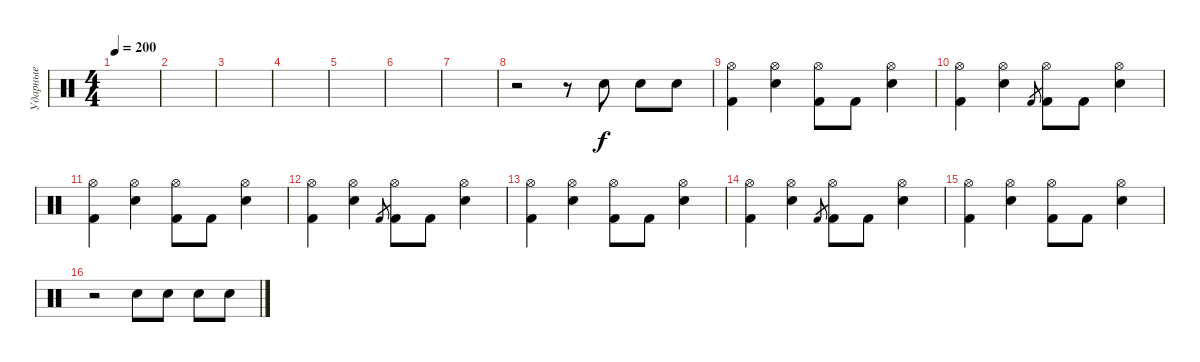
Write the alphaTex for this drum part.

\track ("Ударные" "Ударные") {instrument percussion}
\staff {score}
\articulation defaults
\ts (4 4)
\tempo 200
\clef neutral
\ks c
|
|
|
|
|
|
|
r.2 r.8 "Electric Snare (hit)".8 "Electric Snare (hit)".8 "Electric Snare (hit)".8 |
("Hi-Hat (open)" "Kick (hit) 2").4 ("Hi-Hat (open)" "Electric Snare (hit)").4 ("Hi-Hat (open)" "Kick (hit) 2").8 "Kick (hit) 2".8 ("Hi-Hat (open)" "Electric Snare (hit)").4 |
("Hi-Hat (open)" "Kick (hit) 2").4 ("Hi-Hat (open)" "Electric Snare (hit)").4 "Kick (hit) 2".8{gr} ("Hi-Hat (open)" "Kick (hit) 2").8 "Kick (hit) 2".8 ("Hi-Hat (open)" "Electric Snare (hit)").4 |
("Hi-Hat (open)" "Kick (hit) 2").4 ("Hi-Hat (open)" "Electric Snare (hit)").4 ("Hi-Hat (open)" "Kick (hit) 2").8 "Kick (hit) 2".8 ("Hi-Hat (open)" "Electric Snare (hit)").4 |
("Hi-Hat (open)" "Kick (hit) 2").4 ("Hi-Hat (open)" "Electric Snare (hit)").4 "Kick (hit) 2".8{gr} ("Hi-Hat (open)" "Kick (hit) 2").8 "Kick (hit) 2".8 ("Hi-Hat (open)" "Electric Snare (hit)").4 |
("Hi-Hat (open)" "Kick (hit) 2").4 ("Hi-Hat (open)" "Electric Snare (hit)").4 ("Hi-Hat (open)" "Kick (hit) 2").8 "Kick (hit) 2".8 ("Hi-Hat (open)" "Electric Snare (hit)").4 |
("Hi-Hat (open)" "Kick (hit) 2").4 ("Hi-Hat (open)" "Electric Snare (hit)").4 "Kick (hit) 2".8{gr} ("Hi-Hat (open)" "Kick (hit) 2").8 "Kick (hit) 2".8 ("Hi-Hat (open)" "Electric Snare (hit)").4 |
("Hi-Hat (open)" "Kick (hit) 2").4 ("Hi-Hat (open)" "Electric Snare (hit)").4 ("Hi-Hat (open)" "Kick (hit) 2").8 "Kick (hit) 2".8 ("Hi-Hat (open)" "Electric Snare (hit)").4 |
r.2 "Electric Snare (hit)".8 "Electric Snare (hit)".8 "Electric Snare (hit)".8 "Electric Snare (hit)".8
